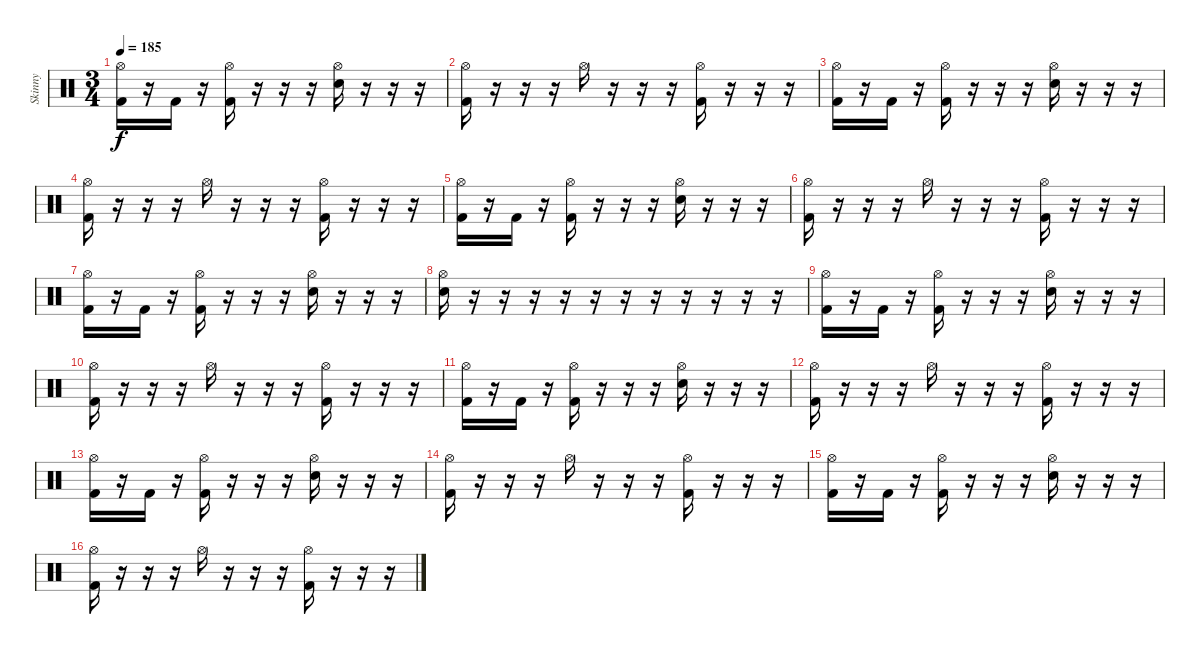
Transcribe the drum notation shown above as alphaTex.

\track ("Skinny" "Skinny") {instrument percussion}
\staff {score}
\articulation defaults
\ts (3 4)
\tempo 185
\clef neutral
\ks c
("Hi-Hat (open)" "Kick (hit) 2").16{dy f} r.16 "Kick (hit) 2".16 r.16 ("Hi-Hat (open)" "Kick (hit) 2").16 r.16 r.16 r.16 ("Hi-Hat (open)" "Snare (hit) 2").16 r.16 r.16 r.16 |
("Hi-Hat (open)" "Kick (hit) 2").16 r.16 r.16 r.16 "Hi-Hat (open)".16 r.16 r.16 r.16 ("Hi-Hat (open)" "Kick (hit) 2").16 r.16 r.16 r.16 |
("Hi-Hat (open)" "Kick (hit) 2").16 r.16 "Kick (hit) 2".16 r.16 ("Hi-Hat (open)" "Kick (hit) 2").16 r.16 r.16 r.16 ("Hi-Hat (open)" "Snare (hit) 2").16 r.16 r.16 r.16 |
("Hi-Hat (open)" "Kick (hit) 2").16 r.16 r.16 r.16 "Hi-Hat (open)".16 r.16 r.16 r.16 ("Hi-Hat (open)" "Kick (hit) 2").16 r.16 r.16 r.16 |
("Hi-Hat (open)" "Kick (hit) 2").16 r.16 "Kick (hit) 2".16 r.16 ("Hi-Hat (open)" "Kick (hit) 2").16 r.16 r.16 r.16 ("Hi-Hat (open)" "Snare (hit) 2").16 r.16 r.16 r.16 |
("Hi-Hat (open)" "Kick (hit) 2").16 r.16 r.16 r.16 "Hi-Hat (open)".16 r.16 r.16 r.16 ("Hi-Hat (open)" "Kick (hit) 2").16 r.16 r.16 r.16 |
("Hi-Hat (open)" "Kick (hit) 2").16 r.16 "Kick (hit) 2".16 r.16 ("Hi-Hat (open)" "Kick (hit) 2").16 r.16 r.16 r.16 ("Hi-Hat (open)" "Snare (hit) 2").16 r.16 r.16 r.16 |
("Hi-Hat (open)" "Snare (hit) 2").16 r.16 r.16 r.16 r.16 r.16 r.16 r.16 r.16 r.16 r.16 r.16 |
("Hi-Hat (open)" "Kick (hit) 2").16 r.16 "Kick (hit) 2".16 r.16 ("Hi-Hat (open)" "Kick (hit) 2").16 r.16 r.16 r.16 ("Hi-Hat (open)" "Snare (hit) 2").16 r.16 r.16 r.16 |
("Hi-Hat (open)" "Kick (hit) 2").16 r.16 r.16 r.16 "Hi-Hat (open)".16 r.16 r.16 r.16 ("Hi-Hat (open)" "Kick (hit) 2").16 r.16 r.16 r.16 |
("Hi-Hat (open)" "Kick (hit) 2").16 r.16 "Kick (hit) 2".16 r.16 ("Hi-Hat (open)" "Kick (hit) 2").16 r.16 r.16 r.16 ("Hi-Hat (open)" "Snare (hit) 2").16 r.16 r.16 r.16 |
("Hi-Hat (open)" "Kick (hit) 2").16 r.16 r.16 r.16 "Hi-Hat (open)".16 r.16 r.16 r.16 ("Hi-Hat (open)" "Kick (hit) 2").16 r.16 r.16 r.16 |
("Hi-Hat (open)" "Kick (hit) 2").16 r.16 "Kick (hit) 2".16 r.16 ("Hi-Hat (open)" "Kick (hit) 2").16 r.16 r.16 r.16 ("Hi-Hat (open)" "Snare (hit) 2").16 r.16 r.16 r.16 |
("Hi-Hat (open)" "Kick (hit) 2").16 r.16 r.16 r.16 "Hi-Hat (open)".16 r.16 r.16 r.16 ("Hi-Hat (open)" "Kick (hit) 2").16 r.16 r.16 r.16 |
("Hi-Hat (open)" "Kick (hit) 2").16 r.16 "Kick (hit) 2".16 r.16 ("Hi-Hat (open)" "Kick (hit) 2").16 r.16 r.16 r.16 ("Hi-Hat (open)" "Snare (hit) 2").16 r.16 r.16 r.16 |
("Hi-Hat (open)" "Kick (hit) 2").16 r.16 r.16 r.16 "Hi-Hat (open)".16 r.16 r.16 r.16 ("Hi-Hat (open)" "Kick (hit) 2").16 r.16 r.16 r.16
